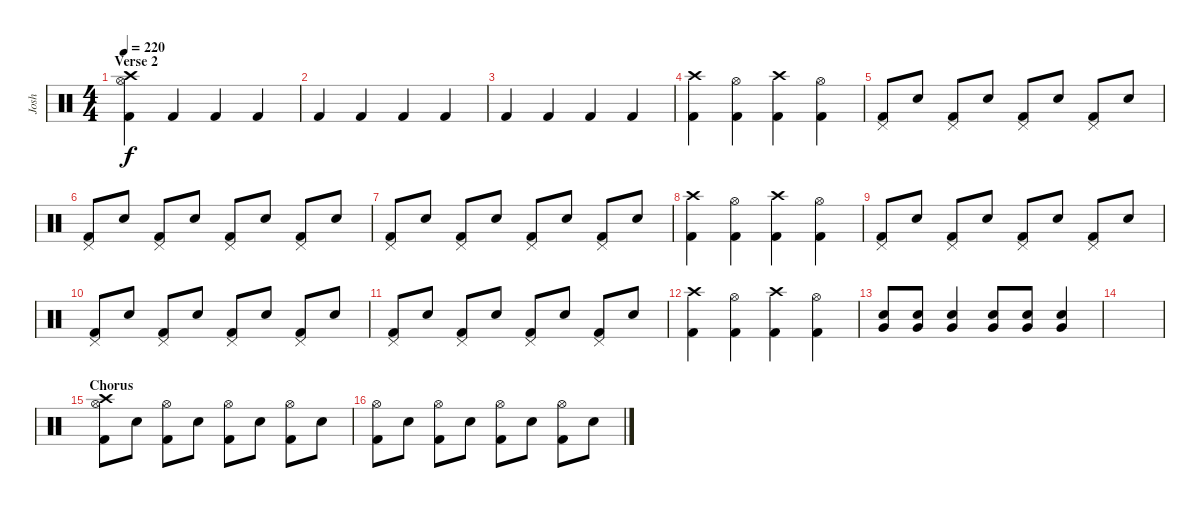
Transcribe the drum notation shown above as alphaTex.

\track ("Josh" "Josh") {instrument percussion}
\staff {score}
\articulation defaults
\ts (4 4)
\section ("" "Verse 2")
\tempo 220
\clef neutral
\ks c
("Hi-Hat (open)" "Crash high (hit)" "Kick (hit) 2").4{dy f} "Kick (hit) 2".4 "Kick (hit) 2".4 "Kick (hit) 2".4 |
"Kick (hit) 2".4 "Kick (hit) 2".4 "Kick (hit) 2".4 "Kick (hit) 2".4 |
"Kick (hit) 2".4 "Kick (hit) 2".4 "Kick (hit) 2".4 "Kick (hit) 2".4 |
("Crash high (hit)" "Kick (hit) 2").4 ("Hi-Hat (open)" "Kick (hit) 2").4 ("Crash high (hit)" "Kick (hit) 2").4 ("Hi-Hat (open)" "Kick (hit) 2").4 |
("Pedal Hi-Hat (hit)" "Kick (hit) 2").8 "Snare (hit) 2".8 ("Pedal Hi-Hat (hit)" "Kick (hit) 2").8 "Snare (hit) 2".8 ("Pedal Hi-Hat (hit)" "Kick (hit) 2").8 "Snare (hit) 2".8 ("Pedal Hi-Hat (hit)" "Kick (hit) 2").8 "Snare (hit) 2".8 |
("Pedal Hi-Hat (hit)" "Kick (hit) 2").8 "Snare (hit) 2".8 ("Pedal Hi-Hat (hit)" "Kick (hit) 2").8 "Snare (hit) 2".8 ("Pedal Hi-Hat (hit)" "Kick (hit) 2").8 "Snare (hit) 2".8 ("Pedal Hi-Hat (hit)" "Kick (hit) 2").8 "Snare (hit) 2".8 |
("Pedal Hi-Hat (hit)" "Kick (hit) 2").8 "Snare (hit) 2".8 ("Pedal Hi-Hat (hit)" "Kick (hit) 2").8 "Snare (hit) 2".8 ("Pedal Hi-Hat (hit)" "Kick (hit) 2").8 "Snare (hit) 2".8 ("Pedal Hi-Hat (hit)" "Kick (hit) 2").8 "Snare (hit) 2".8 |
("Crash high (hit)" "Kick (hit) 2").4 ("Hi-Hat (open)" "Kick (hit) 2").4 ("Crash high (hit)" "Kick (hit) 2").4 ("Hi-Hat (open)" "Kick (hit) 2").4 |
("Pedal Hi-Hat (hit)" "Kick (hit) 2").8 "Snare (hit) 2".8 ("Pedal Hi-Hat (hit)" "Kick (hit) 2").8 "Snare (hit) 2".8 ("Pedal Hi-Hat (hit)" "Kick (hit) 2").8 "Snare (hit) 2".8 ("Pedal Hi-Hat (hit)" "Kick (hit) 2").8 "Snare (hit) 2".8 |
("Pedal Hi-Hat (hit)" "Kick (hit) 2").8 "Snare (hit) 2".8 ("Pedal Hi-Hat (hit)" "Kick (hit) 2").8 "Snare (hit) 2".8 ("Pedal Hi-Hat (hit)" "Kick (hit) 2").8 "Snare (hit) 2".8 ("Pedal Hi-Hat (hit)" "Kick (hit) 2").8 "Snare (hit) 2".8 |
("Pedal Hi-Hat (hit)" "Kick (hit) 2").8 "Snare (hit) 2".8 ("Pedal Hi-Hat (hit)" "Kick (hit) 2").8 "Snare (hit) 2".8 ("Pedal Hi-Hat (hit)" "Kick (hit) 2").8 "Snare (hit) 2".8 ("Pedal Hi-Hat (hit)" "Kick (hit) 2").8 "Snare (hit) 2".8 |
("Crash high (hit)" "Kick (hit) 2").4 ("Hi-Hat (open)" "Kick (hit) 2").4 ("Crash high (hit)" "Kick (hit) 2").4 ("Hi-Hat (open)" "Kick (hit) 2").4 |
("Snare (hit) 2" "Very Low Tom (hit)").8 ("Snare (hit) 2" "Very Low Tom (hit)").8 ("Snare (hit) 2" "Very Low Tom (hit)").4 ("Snare (hit) 2" "Very Low Tom (hit)").8 ("Snare (hit) 2" "Very Low Tom (hit)").8 ("Snare (hit) 2" "Very Low Tom (hit)").4 |
|
\section ("" "Chorus")
("Crash high (hit)" "Hi-Hat (open)" "Kick (hit) 2").8 "Snare (hit) 2".8 ("Hi-Hat (open)" "Kick (hit) 2").8 "Snare (hit) 2".8 ("Hi-Hat (open)" "Kick (hit) 2").8 "Snare (hit) 2".8 ("Hi-Hat (open)" "Kick (hit) 2").8 "Snare (hit) 2".8 |
("Hi-Hat (open)" "Kick (hit) 2").8 "Snare (hit) 2".8 ("Hi-Hat (open)" "Kick (hit) 2").8 "Snare (hit) 2".8 ("Hi-Hat (open)" "Kick (hit) 2").8 "Snare (hit) 2".8 ("Hi-Hat (open)" "Kick (hit) 2").8 "Snare (hit) 2".8
